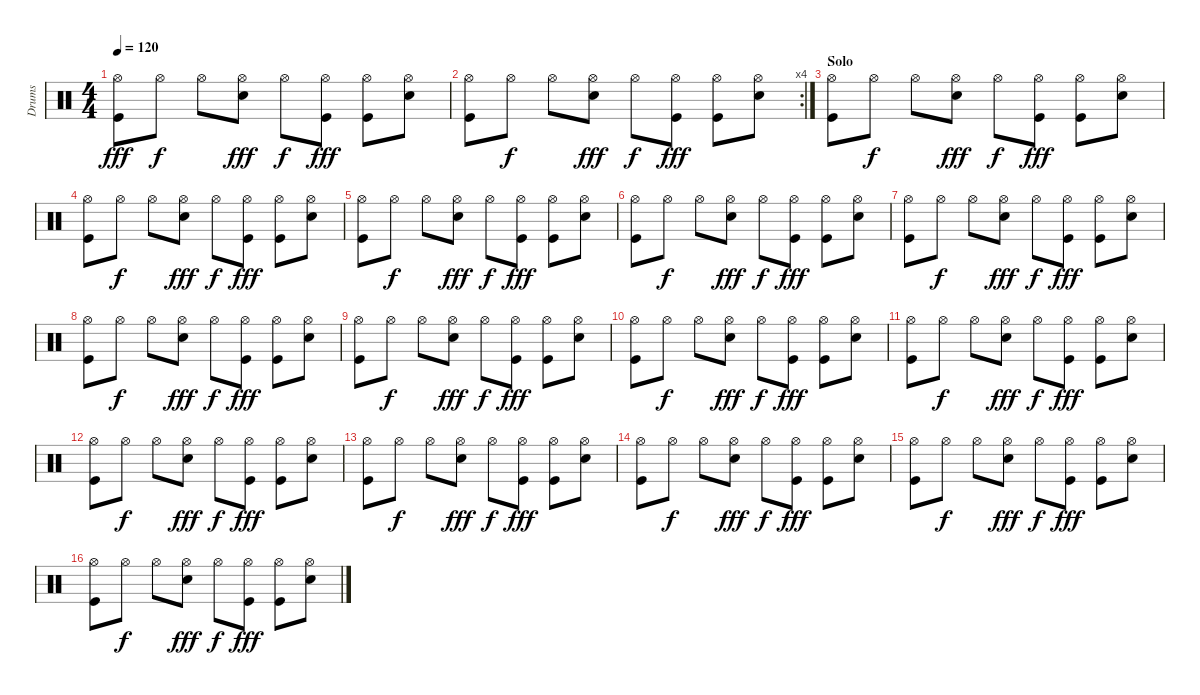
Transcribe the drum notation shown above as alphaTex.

\track ("Drums" "Drums") {instrument percussion}
\staff {score}
\articulation defaults
\ts (4 4)
\tempo 120
\clef neutral
\ks c
("Kick (hit)" "Hi-Hat (open)").8{dy fff} "Hi-Hat (open)".8{dy f} "Hi-Hat (open)".8 ("Snare (hit) 2" "Hi-Hat (open)").8{dy fff} "Hi-Hat (open)".8{dy f} ("Kick (hit)" "Hi-Hat (open)").8{dy fff} ("Kick (hit)" "Hi-Hat (open)").8 ("Snare (hit) 2" "Hi-Hat (open)").8 |
\rc 4
("Kick (hit)" "Hi-Hat (open)").8 "Hi-Hat (open)".8{dy f} "Hi-Hat (open)".8 ("Snare (hit) 2" "Hi-Hat (open)").8{dy fff} "Hi-Hat (open)".8{dy f} ("Kick (hit)" "Hi-Hat (open)").8{dy fff} ("Kick (hit)" "Hi-Hat (open)").8 ("Snare (hit) 2" "Hi-Hat (open)").8 |
\section ("" "Solo")
("Kick (hit)" "Hi-Hat (open)").8 "Hi-Hat (open)".8{dy f} "Hi-Hat (open)".8 ("Snare (hit) 2" "Hi-Hat (open)").8{dy fff} "Hi-Hat (open)".8{dy f} ("Kick (hit)" "Hi-Hat (open)").8{dy fff} ("Kick (hit)" "Hi-Hat (open)").8 ("Snare (hit) 2" "Hi-Hat (open)").8 |
("Kick (hit)" "Hi-Hat (open)").8 "Hi-Hat (open)".8{dy f} "Hi-Hat (open)".8 ("Snare (hit) 2" "Hi-Hat (open)").8{dy fff} "Hi-Hat (open)".8{dy f} ("Kick (hit)" "Hi-Hat (open)").8{dy fff} ("Kick (hit)" "Hi-Hat (open)").8 ("Snare (hit) 2" "Hi-Hat (open)").8 |
("Kick (hit)" "Hi-Hat (open)").8 "Hi-Hat (open)".8{dy f} "Hi-Hat (open)".8 ("Snare (hit) 2" "Hi-Hat (open)").8{dy fff} "Hi-Hat (open)".8{dy f} ("Kick (hit)" "Hi-Hat (open)").8{dy fff} ("Kick (hit)" "Hi-Hat (open)").8 ("Snare (hit) 2" "Hi-Hat (open)").8 |
("Kick (hit)" "Hi-Hat (open)").8 "Hi-Hat (open)".8{dy f} "Hi-Hat (open)".8 ("Snare (hit) 2" "Hi-Hat (open)").8{dy fff} "Hi-Hat (open)".8{dy f} ("Kick (hit)" "Hi-Hat (open)").8{dy fff} ("Kick (hit)" "Hi-Hat (open)").8 ("Snare (hit) 2" "Hi-Hat (open)").8 |
("Kick (hit)" "Hi-Hat (open)").8 "Hi-Hat (open)".8{dy f} "Hi-Hat (open)".8 ("Snare (hit) 2" "Hi-Hat (open)").8{dy fff} "Hi-Hat (open)".8{dy f} ("Kick (hit)" "Hi-Hat (open)").8{dy fff} ("Kick (hit)" "Hi-Hat (open)").8 ("Snare (hit) 2" "Hi-Hat (open)").8 |
("Kick (hit)" "Hi-Hat (open)").8 "Hi-Hat (open)".8{dy f} "Hi-Hat (open)".8 ("Snare (hit) 2" "Hi-Hat (open)").8{dy fff} "Hi-Hat (open)".8{dy f} ("Kick (hit)" "Hi-Hat (open)").8{dy fff} ("Kick (hit)" "Hi-Hat (open)").8 ("Snare (hit) 2" "Hi-Hat (open)").8 |
("Kick (hit)" "Hi-Hat (open)").8 "Hi-Hat (open)".8{dy f} "Hi-Hat (open)".8 ("Snare (hit) 2" "Hi-Hat (open)").8{dy fff} "Hi-Hat (open)".8{dy f} ("Kick (hit)" "Hi-Hat (open)").8{dy fff} ("Kick (hit)" "Hi-Hat (open)").8 ("Snare (hit) 2" "Hi-Hat (open)").8 |
("Kick (hit)" "Hi-Hat (open)").8 "Hi-Hat (open)".8{dy f} "Hi-Hat (open)".8 ("Snare (hit) 2" "Hi-Hat (open)").8{dy fff} "Hi-Hat (open)".8{dy f} ("Kick (hit)" "Hi-Hat (open)").8{dy fff} ("Kick (hit)" "Hi-Hat (open)").8 ("Snare (hit) 2" "Hi-Hat (open)").8 |
("Kick (hit)" "Hi-Hat (open)").8 "Hi-Hat (open)".8{dy f} "Hi-Hat (open)".8 ("Snare (hit) 2" "Hi-Hat (open)").8{dy fff} "Hi-Hat (open)".8{dy f} ("Kick (hit)" "Hi-Hat (open)").8{dy fff} ("Kick (hit)" "Hi-Hat (open)").8 ("Snare (hit) 2" "Hi-Hat (open)").8 |
("Kick (hit)" "Hi-Hat (open)").8 "Hi-Hat (open)".8{dy f} "Hi-Hat (open)".8 ("Snare (hit) 2" "Hi-Hat (open)").8{dy fff} "Hi-Hat (open)".8{dy f} ("Kick (hit)" "Hi-Hat (open)").8{dy fff} ("Kick (hit)" "Hi-Hat (open)").8 ("Snare (hit) 2" "Hi-Hat (open)").8 |
("Kick (hit)" "Hi-Hat (open)").8 "Hi-Hat (open)".8{dy f} "Hi-Hat (open)".8 ("Snare (hit) 2" "Hi-Hat (open)").8{dy fff} "Hi-Hat (open)".8{dy f} ("Kick (hit)" "Hi-Hat (open)").8{dy fff} ("Kick (hit)" "Hi-Hat (open)").8 ("Snare (hit) 2" "Hi-Hat (open)").8 |
("Kick (hit)" "Hi-Hat (open)").8 "Hi-Hat (open)".8{dy f} "Hi-Hat (open)".8 ("Snare (hit) 2" "Hi-Hat (open)").8{dy fff} "Hi-Hat (open)".8{dy f} ("Kick (hit)" "Hi-Hat (open)").8{dy fff} ("Kick (hit)" "Hi-Hat (open)").8 ("Snare (hit) 2" "Hi-Hat (open)").8 |
("Kick (hit)" "Hi-Hat (open)").8 "Hi-Hat (open)".8{dy f} "Hi-Hat (open)".8 ("Snare (hit) 2" "Hi-Hat (open)").8{dy fff} "Hi-Hat (open)".8{dy f} ("Kick (hit)" "Hi-Hat (open)").8{dy fff} ("Kick (hit)" "Hi-Hat (open)").8 ("Snare (hit) 2" "Hi-Hat (open)").8 |
("Kick (hit)" "Hi-Hat (open)").8 "Hi-Hat (open)".8{dy f} "Hi-Hat (open)".8 ("Snare (hit) 2" "Hi-Hat (open)").8{dy fff} "Hi-Hat (open)".8{dy f} ("Kick (hit)" "Hi-Hat (open)").8{dy fff} ("Kick (hit)" "Hi-Hat (open)").8 ("Snare (hit) 2" "Hi-Hat (open)").8
